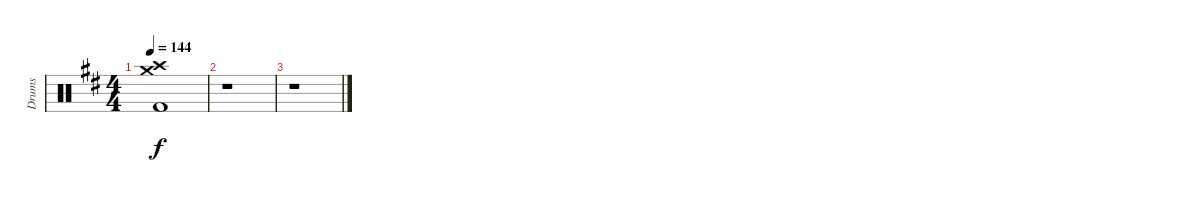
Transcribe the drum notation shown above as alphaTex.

\track ("Drums" "Drums") {instrument percussion}
\staff {score}
\articulation defaults
\ts (4 4)
\tempo 144
\clef neutral
\ks d
("Crash high (hit)" "Crash medium (hit)" "Kick (hit) 2").1{dy f} |
r.1 |
r.1
